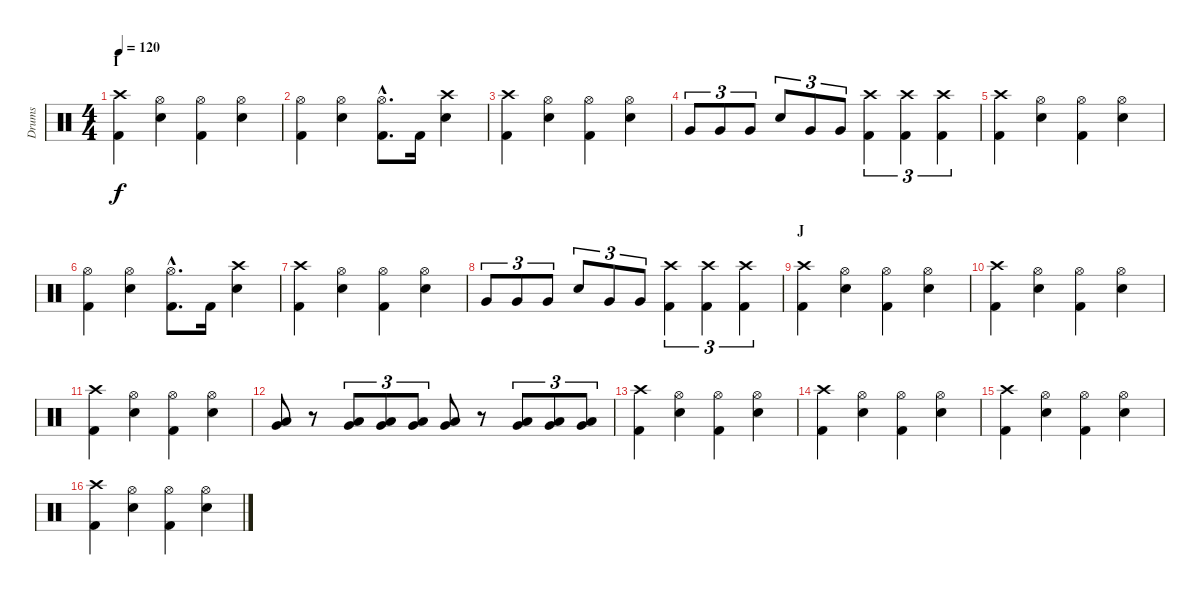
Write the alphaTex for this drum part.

\track ("Drums" "Drums") {instrument percussion}
\staff {score}
\articulation defaults
\ts (4 4)
\section ("" "I")
\tempo 120
\clef neutral
\ks c
("Crash high (hit)" "Kick (hit) 2").4{dy f} ("Hi-Hat (open)" "Electric Snare (hit)").4 ("Hi-Hat (open)" "Kick (hit) 2").4 ("Hi-Hat (open)" "Electric Snare (hit)").4 |
("Hi-Hat (open)" "Kick (hit) 2").4 ("Hi-Hat (open)" "Electric Snare (hit)").4 ("Hi-Hat (open)"{hac} "Kick (hit) 2"{hac}).8{d} "Kick (hit) 2".16 ("Crash high (hit)" "Electric Snare (hit)").4 |
("Crash high (hit)" "Kick (hit) 2").4 ("Hi-Hat (open)" "Electric Snare (hit)").4 ("Hi-Hat (open)" "Kick (hit) 2").4 ("Hi-Hat (open)" "Electric Snare (hit)").4 |
"Very Low Tom (hit)".8{tu (3 2)} "Very Low Tom (hit)".8{tu (3 2)} "Very Low Tom (hit)".8{tu (3 2)} "Electric Snare (hit)".8{tu (3 2)} "Very Low Tom (hit)".8{tu (3 2)} "Very Low Tom (hit)".8{tu (3 2)} ("Crash high (hit)" "Kick (hit) 2").4{tu (3 2)} ("Crash high (hit)" "Kick (hit) 2").4{tu (3 2)} ("Crash high (hit)" "Kick (hit) 2").4{tu (3 2)} |
("Crash high (hit)" "Kick (hit) 2").4 ("Hi-Hat (open)" "Electric Snare (hit)").4 ("Hi-Hat (open)" "Kick (hit) 2").4 ("Hi-Hat (open)" "Electric Snare (hit)").4 |
("Hi-Hat (open)" "Kick (hit) 2").4 ("Hi-Hat (open)" "Electric Snare (hit)").4 ("Hi-Hat (open)"{hac} "Kick (hit) 2"{hac}).8{d} "Kick (hit) 2".16 ("Crash high (hit)" "Electric Snare (hit)").4 |
("Crash high (hit)" "Kick (hit) 2").4 ("Hi-Hat (open)" "Electric Snare (hit)").4 ("Hi-Hat (open)" "Kick (hit) 2").4 ("Hi-Hat (open)" "Electric Snare (hit)").4 |
"Very Low Tom (hit)".8{tu (3 2)} "Very Low Tom (hit)".8{tu (3 2)} "Very Low Tom (hit)".8{tu (3 2)} "Electric Snare (hit)".8{tu (3 2)} "Very Low Tom (hit)".8{tu (3 2)} "Very Low Tom (hit)".8{tu (3 2)} ("Crash high (hit)" "Kick (hit) 2").4{tu (3 2)} ("Crash high (hit)" "Kick (hit) 2").4{tu (3 2)} ("Crash high (hit)" "Kick (hit) 2").4{tu (3 2)} |
\section ("" "J")
("Crash high (hit)" "Kick (hit) 2").4 ("Electric Snare (hit)" "Hi-Hat (open)").4 ("Hi-Hat (open)" "Kick (hit) 2").4 ("Electric Snare (hit)" "Hi-Hat (open)").4 |
("Crash high (hit)" "Kick (hit) 2").4 ("Electric Snare (hit)" "Hi-Hat (open)").4 ("Hi-Hat (open)" "Kick (hit) 2").4 ("Electric Snare (hit)" "Hi-Hat (open)").4 |
("Crash high (hit)" "Kick (hit) 2").4 ("Electric Snare (hit)" "Hi-Hat (open)").4 ("Hi-Hat (open)" "Kick (hit) 2").4 ("Electric Snare (hit)" "Hi-Hat (open)").4 |
("Low Floor Tom (hit)" "Very Low Tom (hit)").8 r.8 ("Low Floor Tom (hit)" "Very Low Tom (hit)").8{tu (3 2)} ("Low Floor Tom (hit)" "Very Low Tom (hit)").8{tu (3 2)} ("Low Floor Tom (hit)" "Very Low Tom (hit)").8{tu (3 2)} ("Low Floor Tom (hit)" "Very Low Tom (hit)").8 r.8 ("Low Floor Tom (hit)" "Very Low Tom (hit)").8{tu (3 2)} ("Low Floor Tom (hit)" "Very Low Tom (hit)").8{tu (3 2)} ("Low Floor Tom (hit)" "Very Low Tom (hit)").8{tu (3 2)} |
("Crash high (hit)" "Kick (hit) 2").4 ("Electric Snare (hit)" "Hi-Hat (open)").4 ("Hi-Hat (open)" "Kick (hit) 2").4 ("Electric Snare (hit)" "Hi-Hat (open)").4 |
("Crash high (hit)" "Kick (hit) 2").4 ("Electric Snare (hit)" "Hi-Hat (open)").4 ("Hi-Hat (open)" "Kick (hit) 2").4 ("Electric Snare (hit)" "Hi-Hat (open)").4 |
("Crash high (hit)" "Kick (hit) 2").4 ("Electric Snare (hit)" "Hi-Hat (open)").4 ("Hi-Hat (open)" "Kick (hit) 2").4 ("Electric Snare (hit)" "Hi-Hat (open)").4 |
("Crash high (hit)" "Kick (hit) 2").4 ("Electric Snare (hit)" "Hi-Hat (open)").4 ("Hi-Hat (open)" "Kick (hit) 2").4 ("Electric Snare (hit)" "Hi-Hat (open)").4
